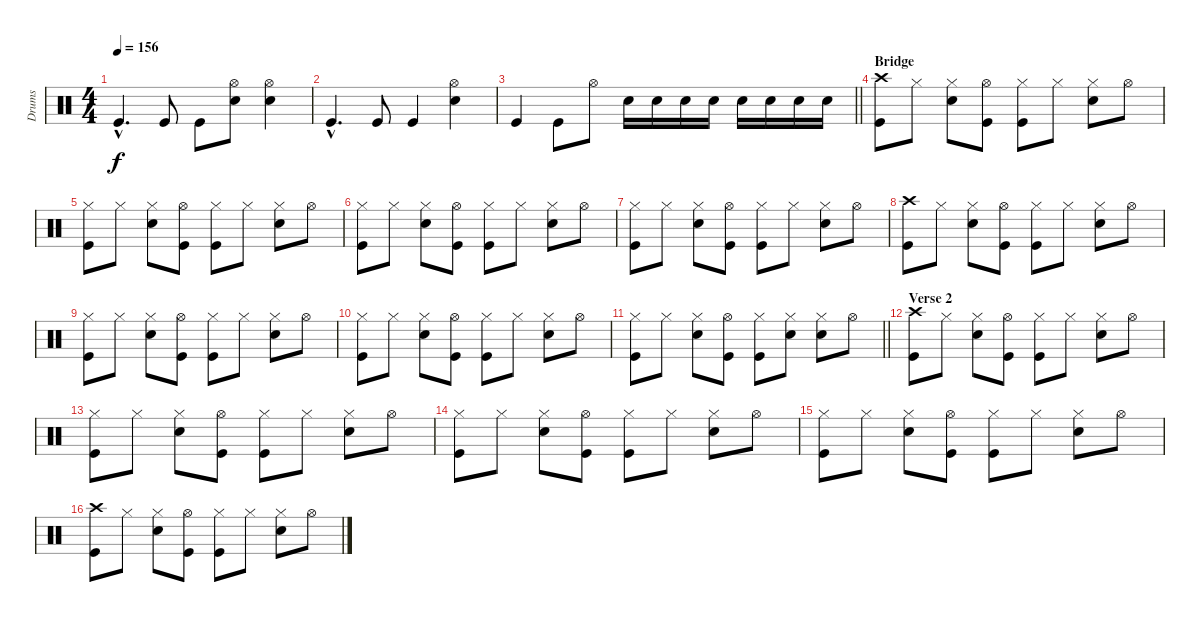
\track ("Drums" "Drums") {instrument percussion}
\staff {score}
\articulation defaults
\ts (4 4)
\tempo 156
\clef neutral
\ks c "Kick (hit)"{hac}.4{d dy f} "Kick (hit)".8 "Kick (hit)".8
("Hi-Hat (open)" "Snare (hit) 2").8 ("Hi-Hat (open)" "Snare (hit) 2").4 |
"Kick (hit)"{hac}.4{d} "Kick (hit)".8 "Kick (hit)".4 ("Hi-Hat (open)" "Snare (hit) 2").4 |
\barLineRight lightlight "Kick (hit)".4 "Kick (hit)".8 "Hi-Hat (open)".8 "Snare (hit) 2".16 "Snare (hit) 2".16 "Snare (hit) 2".16 "Snare (hit) 2".16 "Snare (hit) 2".16 "Snare (hit) 2".16 "Snare (hit) 2".16 "Snare (hit) 2".16
|
\section ("" "Bridge")
("Crash high (hit)" "Kick (hit)").8 "Hi-Hat (closed)".8 ("Hi-Hat (closed)" "Snare (hit) 2").8 ("Hi-Hat (open)" "Kick (hit)").8 ("Hi-Hat (closed)" "Kick (hit)").8 "Hi-Hat (closed)".8 ("Hi-Hat (closed)" "Snare (hit) 2").8 "Hi-Hat (open)".8 |
("Hi-Hat (closed)" "Kick (hit)").8 "Hi-Hat (closed)".8 ("Hi-Hat (closed)" "Snare (hit) 2").8 ("Hi-Hat (open)" "Kick (hit)").8 ("Hi-Hat (closed)" "Kick (hit)").8 "Hi-Hat (closed)".8 ("Hi-Hat (closed)" "Snare (hit) 2").8 "Hi-Hat (open)".8 |
("Hi-Hat (closed)" "Kick (hit)").8 "Hi-Hat (closed)".8 ("Hi-Hat (closed)" "Snare (hit) 2").8 ("Hi-Hat (open)" "Kick (hit)").8 ("Hi-Hat (closed)" "Kick (hit)").8 "Hi-Hat (closed)".8 ("Hi-Hat (closed)" "Snare (hit) 2").8 "Hi-Hat (open)".8 |
("Hi-Hat (closed)" "Kick (hit)").8 "Hi-Hat (closed)".8 ("Hi-Hat (closed)" "Snare (hit) 2").8 ("Hi-Hat (open)" "Kick (hit)").8 ("Hi-Hat (closed)" "Kick (hit)").8 "Hi-Hat (closed)".8 ("Hi-Hat (closed)" "Snare (hit) 2").8 "Hi-Hat (open)".8 |
("Crash high (hit)" "Kick (hit)").8 "Hi-Hat (closed)".8 ("Hi-Hat (closed)" "Snare (hit) 2").8 ("Hi-Hat (open)" "Kick (hit)").8 ("Hi-Hat (closed)" "Kick (hit)").8 "Hi-Hat (closed)".8 ("Hi-Hat (closed)" "Snare (hit) 2").8 "Hi-Hat (open)".8 |
("Hi-Hat (closed)" "Kick (hit)").8 "Hi-Hat (closed)".8 ("Hi-Hat (closed)" "Snare (hit) 2").8 ("Hi-Hat (open)" "Kick (hit)").8 ("Hi-Hat (closed)" "Kick (hit)").8 "Hi-Hat (closed)".8 ("Hi-Hat (closed)" "Snare (hit) 2").8 "Hi-Hat (open)".8 |
("Hi-Hat (closed)" "Kick (hit)").8 "Hi-Hat (closed)".8 ("Hi-Hat (closed)" "Snare (hit) 2").8 ("Hi-Hat (open)" "Kick (hit)").8 ("Hi-Hat (closed)" "Kick (hit)").8 "Hi-Hat (closed)".8 ("Hi-Hat (closed)" "Snare (hit) 2").8 "Hi-Hat (open)".8 |
\barLineRight lightlight
("Hi-Hat (closed)" "Kick (hit)").8 "Hi-Hat (closed)".8 ("Hi-Hat (closed)" "Snare (hit) 2").8 ("Hi-Hat (open)" "Kick (hit)").8 ("Hi-Hat (closed)" "Kick (hit)").8 ("Hi-Hat (closed)" "Snare (hit) 2").8 ("Hi-Hat (closed)" "Snare (hit) 2").8 "Hi-Hat (open)".8 |
\section ("" "Verse 2")
("Crash high (hit)" "Kick (hit)").8 "Hi-Hat (closed)".8 ("Hi-Hat (closed)" "Snare (hit) 2").8 ("Hi-Hat (open)" "Kick (hit)").8 ("Hi-Hat (closed)" "Kick (hit)").8 "Hi-Hat (closed)".8 ("Hi-Hat (closed)" "Snare (hit) 2").8 "Hi-Hat (open)".8 |
("Hi-Hat (closed)" "Kick (hit)").8 "Hi-Hat (closed)".8 ("Hi-Hat (closed)" "Snare (hit) 2").8 ("Hi-Hat (open)" "Kick (hit)").8 ("Hi-Hat (closed)" "Kick (hit)").8 "Hi-Hat (closed)".8 ("Hi-Hat (closed)" "Snare (hit) 2").8 "Hi-Hat (open)".8 |
("Hi-Hat (closed)" "Kick (hit)").8 "Hi-Hat (closed)".8 ("Hi-Hat (closed)" "Snare (hit) 2").8 ("Hi-Hat (open)" "Kick (hit)").8 ("Hi-Hat (closed)" "Kick (hit)").8 "Hi-Hat (closed)".8 ("Hi-Hat (closed)" "Snare (hit) 2").8 "Hi-Hat (open)".8 |
("Hi-Hat (closed)" "Kick (hit)").8 "Hi-Hat (closed)".8 ("Hi-Hat (closed)" "Snare (hit) 2").8 ("Hi-Hat (open)" "Kick (hit)").8 ("Hi-Hat (closed)" "Kick (hit)").8 "Hi-Hat (closed)".8 ("Hi-Hat (closed)" "Snare (hit) 2").8 "Hi-Hat (open)".8 |
("Crash high (hit)" "Kick (hit)").8 "Hi-Hat (closed)".8 ("Hi-Hat (closed)" "Snare (hit) 2").8 ("Hi-Hat (open)" "Kick (hit)").8 ("Hi-Hat (closed)" "Kick (hit)").8 "Hi-Hat (closed)".8 ("Hi-Hat (closed)" "Snare (hit) 2").8 "Hi-Hat (open)".8
